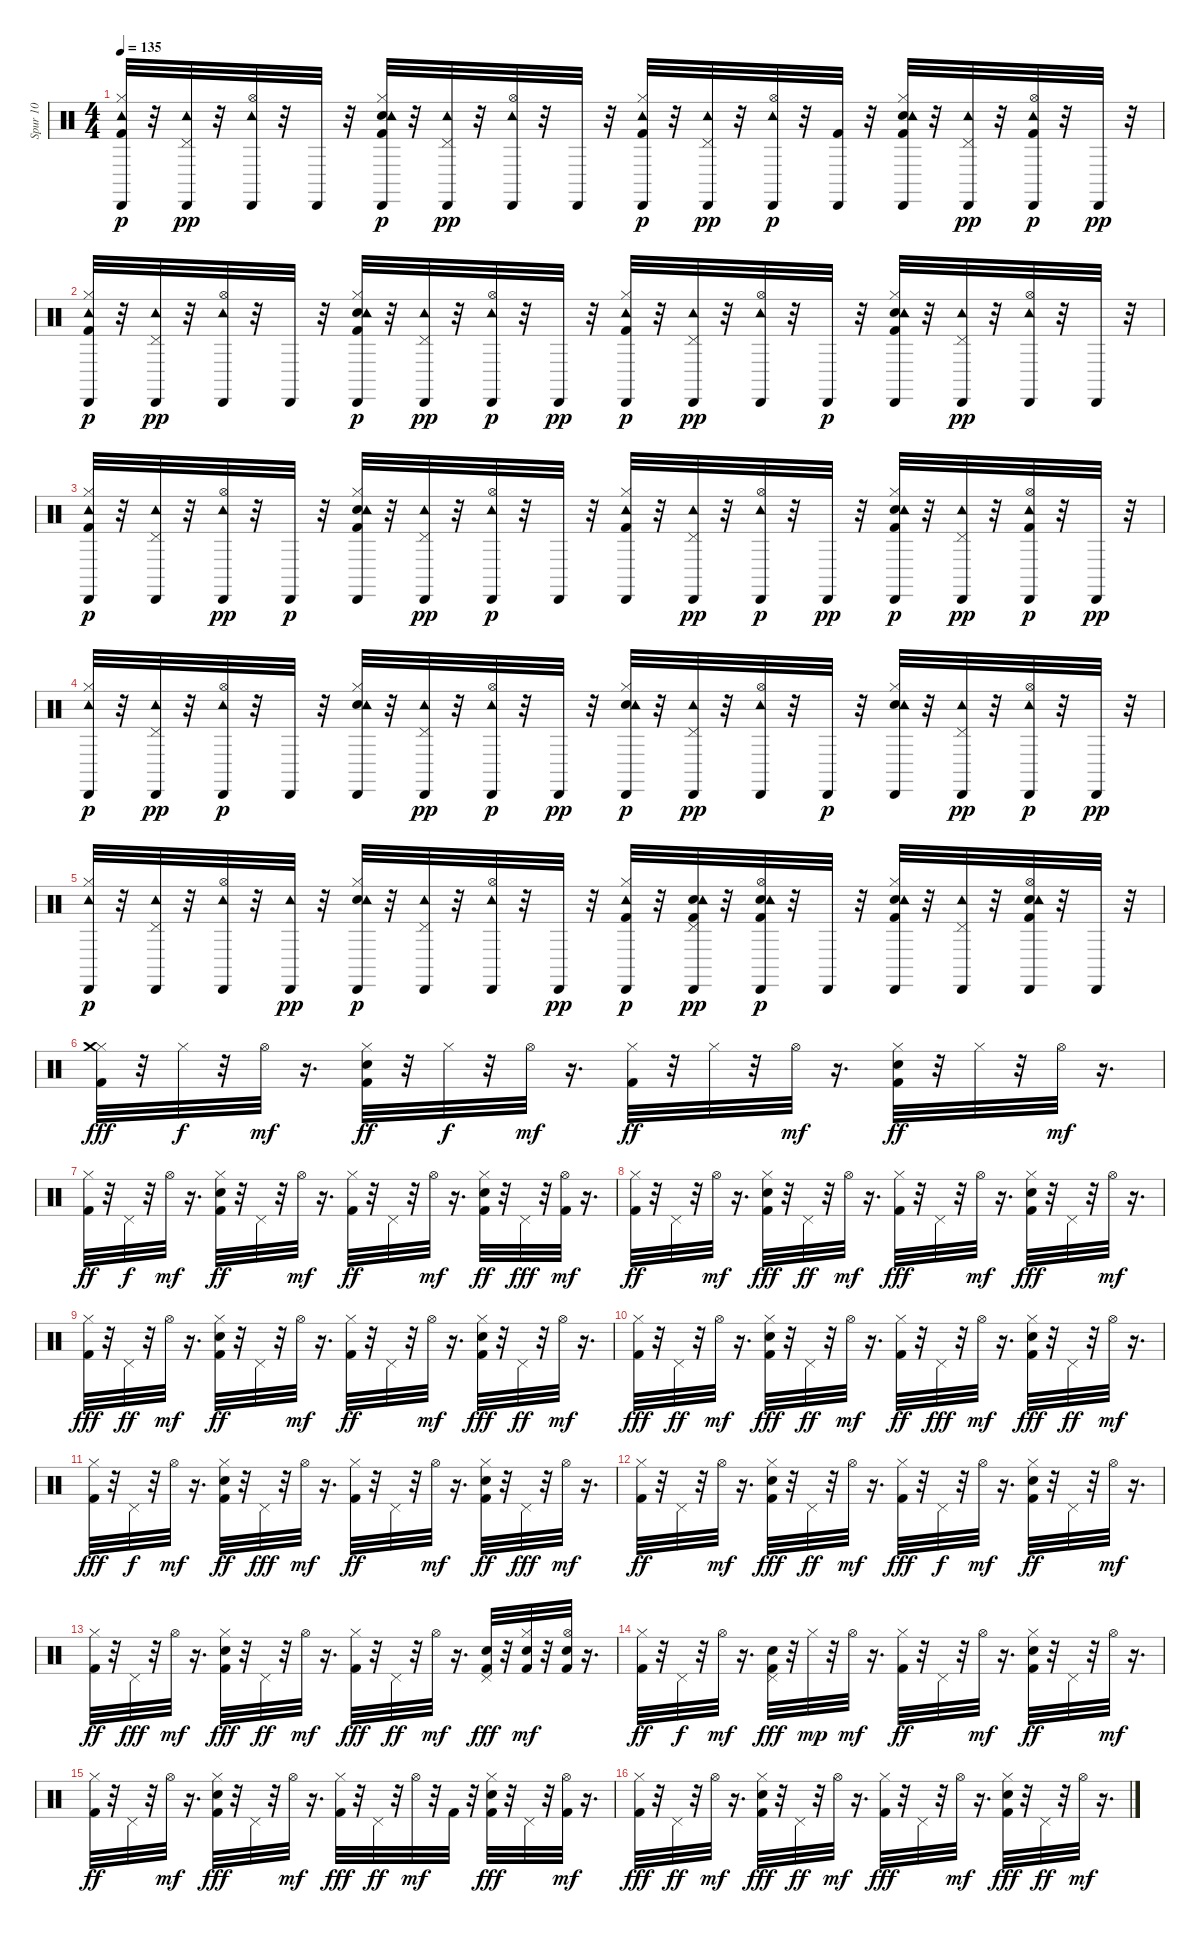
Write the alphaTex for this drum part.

\track ("Spur 10" "Spur 10") {instrument percussion}
\staff {score}
\articulation defaults
\ts (4 4)
\tempo 135
\clef neutral
\ks c
("Kick (hit) 2" "Hi-Hat (closed)" "Tambourine (hit)" "Cabasa (hit)").32{dy p} r.32 ("Pedal Hi-Hat (hit)" "Tambourine (hit)" "Cabasa (hit)").32{dy pp} r.32 ("Hi-Hat (open)" "Tambourine (hit)" "Cabasa (hit)").32 r.32 "Cabasa (hit)".32 r.32 ("Kick (hit) 2" "Snare (hit) 2" "Hi-Hat (closed)" "Tambourine (hit)" "Cabasa (hit)").32{dy p} r.32 ("Pedal Hi-Hat (hit)" "Tambourine (hit)" "Cabasa (hit)").32{dy pp} r.32 ("Hi-Hat (open)" "Tambourine (hit)" "Cabasa (hit)").32 r.32 "Cabasa (hit)".32 r.32 ("Kick (hit) 2" "Hi-Hat (closed)" "Tambourine (hit)" "Cabasa (hit)").32{dy p} r.32 ("Pedal Hi-Hat (hit)" "Tambourine (hit)" "Cabasa (hit)").32{dy pp} r.32 ("Hi-Hat (open)" "Tambourine (hit)" "Cabasa (hit)").32{dy p} r.32 ("Kick (hit) 2" "Cabasa (hit)").32 r.32 ("Kick (hit) 2" "Snare (hit) 2" "Hi-Hat (closed)" "Tambourine (hit)" "Cabasa (hit)").32 r.32 ("Pedal Hi-Hat (hit)" "Tambourine (hit)" "Cabasa (hit)").32{dy pp} r.32 ("Kick (hit) 2" "Hi-Hat (open)" "Tambourine (hit)" "Cabasa (hit)").32{dy p} r.32 "Cabasa (hit)".32{dy pp} r.32 |
("Kick (hit) 2" "Hi-Hat (closed)" "Tambourine (hit)" "Cabasa (hit)").32{dy p} r.32 ("Pedal Hi-Hat (hit)" "Tambourine (hit)" "Cabasa (hit)").32{dy pp} r.32 ("Hi-Hat (open)" "Tambourine (hit)" "Cabasa (hit)").32 r.32 "Cabasa (hit)".32 r.32 ("Kick (hit) 2" "Snare (hit) 2" "Hi-Hat (closed)" "Tambourine (hit)" "Cabasa (hit)").32{dy p} r.32 ("Pedal Hi-Hat (hit)" "Tambourine (hit)" "Cabasa (hit)").32{dy pp} r.32 ("Hi-Hat (open)" "Tambourine (hit)" "Cabasa (hit)").32{dy p} r.32 "Cabasa (hit)".32{dy pp} r.32 ("Kick (hit) 2" "Hi-Hat (closed)" "Tambourine (hit)" "Cabasa (hit)").32{dy p} r.32 ("Pedal Hi-Hat (hit)" "Tambourine (hit)" "Cabasa (hit)").32{dy pp} r.32 ("Hi-Hat (open)" "Tambourine (hit)" "Cabasa (hit)").32 r.32 "Cabasa (hit)".32{dy p} r.32 ("Kick (hit) 2" "Snare (hit) 2" "Hi-Hat (closed)" "Tambourine (hit)" "Cabasa (hit)").32 r.32 ("Pedal Hi-Hat (hit)" "Tambourine (hit)" "Cabasa (hit)").32{dy pp} r.32 ("Hi-Hat (open)" "Tambourine (hit)" "Cabasa (hit)").32 r.32 "Cabasa (hit)".32 r.32 |
("Kick (hit) 2" "Hi-Hat (closed)" "Tambourine (hit)" "Cabasa (hit)").32{dy p} r.32 ("Pedal Hi-Hat (hit)" "Tambourine (hit)" "Cabasa (hit)").32 r.32 ("Hi-Hat (open)" "Tambourine (hit)" "Cabasa (hit)").32{dy pp} r.32 "Cabasa (hit)".32{dy p} r.32 ("Kick (hit) 2" "Snare (hit) 2" "Hi-Hat (closed)" "Tambourine (hit)" "Cabasa (hit)").32 r.32 ("Pedal Hi-Hat (hit)" "Tambourine (hit)" "Cabasa (hit)").32{dy pp} r.32 ("Hi-Hat (open)" "Tambourine (hit)" "Cabasa (hit)").32{dy p} r.32 "Cabasa (hit)".32 r.32 ("Kick (hit) 2" "Hi-Hat (closed)" "Tambourine (hit)" "Cabasa (hit)").32 r.32 ("Pedal Hi-Hat (hit)" "Tambourine (hit)" "Cabasa (hit)").32{dy pp} r.32 ("Hi-Hat (open)" "Tambourine (hit)" "Cabasa (hit)").32{dy p} r.32 "Cabasa (hit)".32{dy pp} r.32 ("Kick (hit) 2" "Snare (hit) 2" "Hi-Hat (closed)" "Tambourine (hit)" "Cabasa (hit)").32{dy p} r.32 ("Pedal Hi-Hat (hit)" "Tambourine (hit)" "Cabasa (hit)").32{dy pp} r.32 ("Kick (hit) 2" "Hi-Hat (open)" "Tambourine (hit)" "Cabasa (hit)").32{dy p} r.32 "Cabasa (hit)".32{dy pp} r.32 |
("Hi-Hat (closed)" "Tambourine (hit)" "Cabasa (hit)").32{dy p} r.32 ("Pedal Hi-Hat (hit)" "Tambourine (hit)" "Cabasa (hit)").32{dy pp} r.32 ("Hi-Hat (open)" "Tambourine (hit)" "Cabasa (hit)").32{dy p} r.32 "Cabasa (hit)".32 r.32 ("Snare (hit) 2" "Hi-Hat (closed)" "Tambourine (hit)" "Cabasa (hit)").32 r.32 ("Pedal Hi-Hat (hit)" "Tambourine (hit)" "Cabasa (hit)").32{dy pp} r.32 ("Hi-Hat (open)" "Tambourine (hit)" "Cabasa (hit)").32{dy p} r.32 "Cabasa (hit)".32{dy pp} r.32 ("Snare (hit) 2" "Hi-Hat (closed)" "Tambourine (hit)" "Cabasa (hit)").32{dy p} r.32 ("Pedal Hi-Hat (hit)" "Tambourine (hit)" "Cabasa (hit)").32{dy pp} r.32 ("Hi-Hat (open)" "Tambourine (hit)" "Cabasa (hit)").32 r.32 "Cabasa (hit)".32{dy p} r.32 ("Snare (hit) 2" "Hi-Hat (closed)" "Tambourine (hit)" "Cabasa (hit)").32 r.32 ("Pedal Hi-Hat (hit)" "Tambourine (hit)" "Cabasa (hit)").32{dy pp} r.32 ("Hi-Hat (open)" "Tambourine (hit)" "Cabasa (hit)").32{dy p} r.32 "Cabasa (hit)".32{dy pp} r.32 |
("Hi-Hat (closed)" "Tambourine (hit)" "Cabasa (hit)").32{dy p} r.32 ("Pedal Hi-Hat (hit)" "Tambourine (hit)" "Cabasa (hit)").32 r.32 ("Hi-Hat (open)" "Tambourine (hit)" "Cabasa (hit)").32 r.32 ("Tambourine (hit)" "Cabasa (hit)").32{dy pp} r.32 ("Snare (hit) 2" "Hi-Hat (closed)" "Tambourine (hit)" "Cabasa (hit)").32{dy p} r.32 ("Pedal Hi-Hat (hit)" "Tambourine (hit)" "Cabasa (hit)").32 r.32 ("Hi-Hat (open)" "Tambourine (hit)" "Cabasa (hit)").32 r.32 "Cabasa (hit)".32{dy pp} r.32 ("Kick (hit) 2" "Hi-Hat (closed)" "Tambourine (hit)" "Cabasa (hit)").32{dy p} r.32 ("Kick (hit) 2" "Snare (hit) 2" "Pedal Hi-Hat (hit)" "Tambourine (hit)" "Cabasa (hit)").32{dy pp} r.32 ("Kick (hit) 2" "Snare (hit) 2" "Hi-Hat (open)" "Tambourine (hit)" "Cabasa (hit)").32{dy p} r.32 "Cabasa (hit)".32 r.32 ("Kick (hit) 2" "Snare (hit) 2" "Hi-Hat (closed)" "Tambourine (hit)" "Cabasa (hit)").32 r.32 ("Pedal Hi-Hat (hit)" "Tambourine (hit)" "Cabasa (hit)").32 r.32 ("Kick (hit) 2" "Snare (hit) 2" "Hi-Hat (open)" "Tambourine (hit)" "Cabasa (hit)").32 r.32 "Cabasa (hit)".32 r.32 |
("Kick (hit) 2" "Hi-Hat (closed)" "Crash medium (hit)").32{dy fff} r.32 "Hi-Hat (closed)".32{dy f} r.32 "Hi-Hat (open)".32{dy mf} r.16{d} ("Kick (hit) 2" "Snare (hit) 2" "Hi-Hat (closed)").32{dy ff} r.32 "Hi-Hat (closed)".32{dy f} r.32 "Hi-Hat (open)".32{dy mf} r.16{d} ("Kick (hit) 2" "Hi-Hat (closed)").32{dy ff} r.32 "Hi-Hat (closed)".32 r.32 "Hi-Hat (open)".32{dy mf} r.16{d} ("Kick (hit) 2" "Snare (hit) 2" "Hi-Hat (closed)").32{dy ff} r.32 "Hi-Hat (closed)".32 r.32 "Hi-Hat (open)".32{dy mf} r.16{d} |
("Kick (hit) 2" "Hi-Hat (closed)").32{dy ff} r.32 "Pedal Hi-Hat (hit)".32{dy f} r.32 "Hi-Hat (open)".32{dy mf} r.16{d} ("Kick (hit) 2" "Snare (hit) 2" "Hi-Hat (closed)").32{dy ff} r.32 "Pedal Hi-Hat (hit)".32 r.32 "Hi-Hat (open)".32{dy mf} r.16{d} ("Kick (hit) 2" "Hi-Hat (closed)").32{dy ff} r.32 "Pedal Hi-Hat (hit)".32 r.32 "Hi-Hat (open)".32{dy mf} r.16{d} ("Kick (hit) 2" "Snare (hit) 2" "Hi-Hat (closed)").32{dy ff} r.32 "Pedal Hi-Hat (hit)".32{dy fff} r.32 ("Kick (hit) 2" "Hi-Hat (open)").32{dy mf} r.16{d} |
("Kick (hit) 2" "Hi-Hat (closed)").32{dy ff} r.32 "Pedal Hi-Hat (hit)".32 r.32 "Hi-Hat (open)".32{dy mf} r.16{d} ("Kick (hit) 2" "Snare (hit) 2" "Hi-Hat (closed)").32{dy fff} r.32 "Pedal Hi-Hat (hit)".32{dy ff} r.32 "Hi-Hat (open)".32{dy mf} r.16{d} ("Kick (hit) 2" "Hi-Hat (closed)").32{dy fff} r.32 "Pedal Hi-Hat (hit)".32 r.32 "Hi-Hat (open)".32{dy mf} r.16{d} ("Kick (hit) 2" "Snare (hit) 2" "Hi-Hat (closed)").32{dy fff} r.32 "Pedal Hi-Hat (hit)".32 r.32 "Hi-Hat (open)".32{dy mf} r.16{d} |
("Kick (hit) 2" "Hi-Hat (closed)").32{dy fff} r.32 "Pedal Hi-Hat (hit)".32{dy ff} r.32 "Hi-Hat (open)".32{dy mf} r.16{d} ("Kick (hit) 2" "Snare (hit) 2" "Hi-Hat (closed)").32{dy ff} r.32 "Pedal Hi-Hat (hit)".32 r.32 "Hi-Hat (open)".32{dy mf} r.16{d} ("Kick (hit) 2" "Hi-Hat (closed)").32{dy ff} r.32 "Pedal Hi-Hat (hit)".32 r.32 "Hi-Hat (open)".32{dy mf} r.16{d} ("Kick (hit) 2" "Snare (hit) 2" "Hi-Hat (closed)").32{dy fff} r.32 "Pedal Hi-Hat (hit)".32{dy ff} r.32 "Hi-Hat (open)".32{dy mf} r.16{d} |
("Kick (hit) 2" "Hi-Hat (closed)").32{dy fff} r.32 "Pedal Hi-Hat (hit)".32{dy ff} r.32 "Hi-Hat (open)".32{dy mf} r.16{d} ("Kick (hit) 2" "Snare (hit) 2" "Hi-Hat (closed)").32{dy fff} r.32 "Pedal Hi-Hat (hit)".32{dy ff} r.32 "Hi-Hat (open)".32{dy mf} r.16{d} ("Kick (hit) 2" "Hi-Hat (closed)").32{dy ff} r.32 "Pedal Hi-Hat (hit)".32{dy fff} r.32 "Hi-Hat (open)".32{dy mf} r.16{d} ("Kick (hit) 2" "Snare (hit) 2" "Hi-Hat (closed)").32{dy fff} r.32 "Pedal Hi-Hat (hit)".32{dy ff} r.32 "Hi-Hat (open)".32{dy mf} r.16{d} |
("Kick (hit) 2" "Hi-Hat (closed)").32{dy fff} r.32 "Pedal Hi-Hat (hit)".32{dy f} r.32 "Hi-Hat (open)".32{dy mf} r.16{d} ("Kick (hit) 2" "Snare (hit) 2" "Hi-Hat (closed)").32{dy ff} r.32 "Pedal Hi-Hat (hit)".32{dy fff} r.32 "Hi-Hat (open)".32{dy mf} r.16{d} ("Kick (hit) 2" "Hi-Hat (closed)").32{dy ff} r.32 "Pedal Hi-Hat (hit)".32 r.32 "Hi-Hat (open)".32{dy mf} r.16{d} ("Kick (hit) 2" "Snare (hit) 2" "Hi-Hat (closed)").32{dy ff} r.32 "Pedal Hi-Hat (hit)".32{dy fff} r.32 "Hi-Hat (open)".32{dy mf} r.16{d} |
("Kick (hit) 2" "Hi-Hat (closed)").32{dy ff} r.32 "Pedal Hi-Hat (hit)".32 r.32 "Hi-Hat (open)".32{dy mf} r.16{d} ("Kick (hit) 2" "Snare (hit) 2" "Hi-Hat (closed)").32{dy fff} r.32 "Pedal Hi-Hat (hit)".32{dy ff} r.32 "Hi-Hat (open)".32{dy mf} r.16{d} ("Kick (hit) 2" "Hi-Hat (closed)").32{dy fff} r.32 "Pedal Hi-Hat (hit)".32{dy f} r.32 "Hi-Hat (open)".32{dy mf} r.16{d} ("Kick (hit) 2" "Snare (hit) 2" "Hi-Hat (closed)").32{dy ff} r.32 "Pedal Hi-Hat (hit)".32 r.32 "Hi-Hat (open)".32{dy mf} r.16{d} |
("Kick (hit) 2" "Hi-Hat (closed)").32{dy ff} r.32 "Pedal Hi-Hat (hit)".32{dy fff} r.32 "Hi-Hat (open)".32{dy mf} r.16{d} ("Kick (hit) 2" "Snare (hit) 2" "Hi-Hat (closed)").32{dy fff} r.32 "Pedal Hi-Hat (hit)".32{dy ff} r.32 "Hi-Hat (open)".32{dy mf} r.16{d} ("Kick (hit) 2" "Hi-Hat (closed)").32{dy fff} r.32 "Pedal Hi-Hat (hit)".32{dy ff} r.32 "Hi-Hat (open)".32{dy mf} r.16{d} ("Kick (hit) 2" "Snare (hit) 2" "Pedal Hi-Hat (hit)").32{dy fff} r.32 ("Kick (hit) 2" "Snare (hit) 2" "Hi-Hat (closed)").32{dy mf} r.32 ("Kick (hit) 2" "Snare (hit) 2" "Hi-Hat (open)").32 r.16{d} |
("Kick (hit) 2" "Hi-Hat (closed)").32{dy ff} r.32 "Pedal Hi-Hat (hit)".32{dy f} r.32 "Hi-Hat (open)".32{dy mf} r.16{d} ("Kick (hit) 2" "Snare (hit) 2" "Pedal Hi-Hat (hit)").32{dy fff} r.32 "Hi-Hat (closed)".32{dy mp} r.32 "Hi-Hat (open)".32{dy mf} r.16{d} ("Kick (hit) 2" "Hi-Hat (closed)").32{dy ff} r.32 "Pedal Hi-Hat (hit)".32 r.32 "Hi-Hat (open)".32{dy mf} r.16{d} ("Kick (hit) 2" "Snare (hit) 2" "Hi-Hat (closed)").32{dy ff} r.32 "Pedal Hi-Hat (hit)".32 r.32 "Hi-Hat (open)".32{dy mf} r.16{d} |
("Kick (hit) 2" "Hi-Hat (closed)").32{dy ff} r.32 "Pedal Hi-Hat (hit)".32 r.32 "Hi-Hat (open)".32{dy mf} r.16{d} ("Kick (hit) 2" "Snare (hit) 2" "Hi-Hat (closed)").32{dy fff} r.32 "Pedal Hi-Hat (hit)".32 r.32 "Hi-Hat (open)".32{dy mf} r.16{d} ("Kick (hit) 2" "Hi-Hat (closed)").32{dy fff} r.32 "Pedal Hi-Hat (hit)".32{dy ff} r.32 "Hi-Hat (open)".32{dy mf} r.32 "Kick (hit) 2".32 r.32 ("Kick (hit) 2" "Snare (hit) 2" "Hi-Hat (closed)").32{dy fff} r.32 "Pedal Hi-Hat (hit)".32 r.32 ("Kick (hit) 2" "Hi-Hat (open)").32{dy mf} r.16{d} |
("Kick (hit) 2" "Hi-Hat (closed)").32{dy fff} r.32 "Pedal Hi-Hat (hit)".32{dy ff} r.32 "Hi-Hat (open)".32{dy mf} r.16{d} ("Kick (hit) 2" "Snare (hit) 2" "Hi-Hat (closed)").32{dy fff} r.32 "Pedal Hi-Hat (hit)".32{dy ff} r.32 "Hi-Hat (open)".32{dy mf} r.16{d} ("Kick (hit) 2" "Hi-Hat (closed)").32{dy fff} r.32 "Pedal Hi-Hat (hit)".32 r.32 "Hi-Hat (open)".32{dy mf} r.16{d} ("Kick (hit) 2" "Snare (hit) 2" "Hi-Hat (closed)").32{dy fff} r.32 "Pedal Hi-Hat (hit)".32{dy ff} r.32 "Hi-Hat (open)".32{dy mf} r.16{d}
